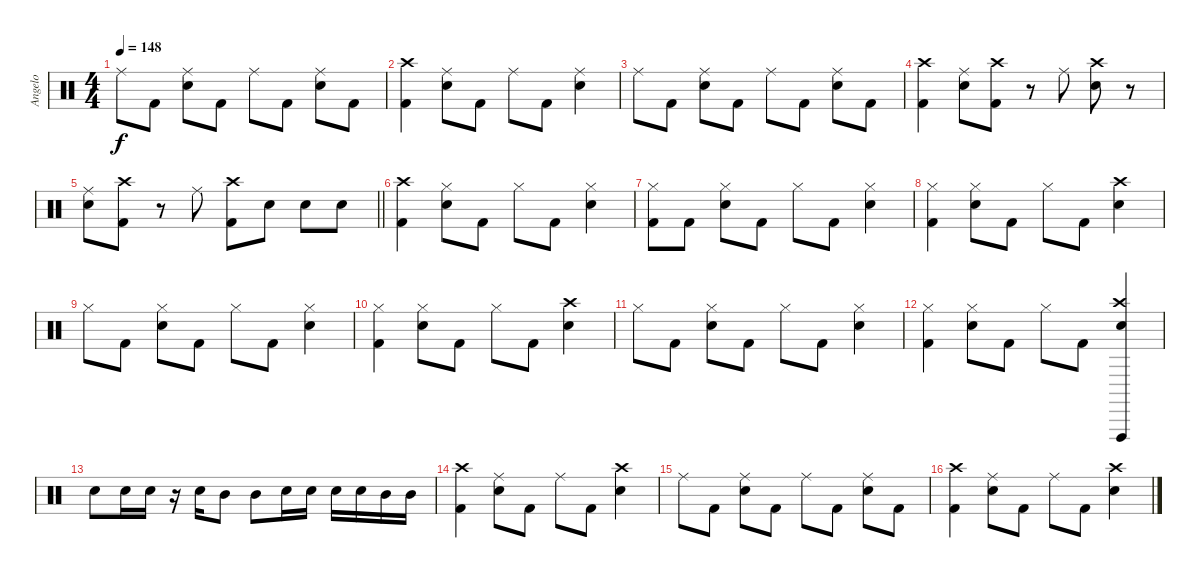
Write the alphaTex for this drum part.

\track ("Angelo" "Angelo") {instrument percussion}
\staff {score}
\articulation defaults
\ts (4 4)
\tempo 148
\clef neutral
\ks c "Ride (middle)".8{dy f} "Kick (hit) 2".8
("Ride (middle)" "Snare (hit) 2").8 "Kick (hit) 2".8 "Ride (middle)".8 "Kick (hit) 2".8 ("Ride (middle)" "Snare (hit) 2").8 "Kick (hit) 2".8 |
("Crash high (hit)" "Kick (hit) 2").4 ("Ride (middle)" "Snare (hit) 2").8 "Kick (hit) 2".8 "Ride (middle)".8 "Kick (hit) 2".8 ("Ride (middle)" "Snare (hit) 2").4 |
"Ride (middle)".8 "Kick (hit) 2".8 ("Ride (middle)" "Snare (hit) 2").8 "Kick (hit) 2".8 "Ride (middle)".8 "Kick (hit) 2".8 ("Ride (middle)" "Snare (hit) 2").8 "Kick (hit) 2".8 |
("Crash high (hit)" "Kick (hit) 2").4 ("Ride (middle)" "Snare (hit) 2").8 ("Crash high (hit)" "Kick (hit) 2").8 r.8 "Ride (middle)".8 ("Crash high (hit)" "Snare (hit) 2").8 r.8 |
\barLineRight lightlight
("Ride (middle)" "Snare (hit) 2").8 ("Crash high (hit)" "Kick (hit) 2").8 r.8 "Ride (middle)".8 ("Crash high (hit)" "Kick (hit) 2").8 "Snare (hit) 2".8 "Snare (hit) 2".8 "Snare (hit) 2".8 |
("Crash high (hit)" "Kick (hit) 2").4 ("Hi-Hat (closed)" "Snare (hit) 2").8 "Kick (hit) 2".8 "Hi-Hat (closed)".8 "Kick (hit) 2".8 ("Hi-Hat (closed)" "Snare (hit) 2").4 |
("Hi-Hat (closed)" "Kick (hit) 2").8 "Kick (hit) 2".8 ("Hi-Hat (closed)" "Snare (hit) 2").8 "Kick (hit) 2".8 "Hi-Hat (closed)".8 "Kick (hit) 2".8 ("Hi-Hat (closed)" "Snare (hit) 2").4 |
("Hi-Hat (closed)" "Kick (hit) 2").4 ("Hi-Hat (closed)" "Snare (hit) 2").8 "Kick (hit) 2".8 "Hi-Hat (closed)".8 "Kick (hit) 2".8 ("Crash high (hit)" "Snare (hit) 2").4 |
"Hi-Hat (closed)".8 "Kick (hit) 2".8 ("Hi-Hat (closed)" "Snare (hit) 2").8 "Kick (hit) 2".8 "Hi-Hat (closed)".8 "Kick (hit) 2".8 ("Hi-Hat (closed)" "Snare (hit) 2").4 |
("Hi-Hat (closed)" "Kick (hit) 2").4 ("Hi-Hat (closed)" "Snare (hit) 2").8 "Kick (hit) 2".8 "Hi-Hat (closed)".8 "Kick (hit) 2".8 ("Crash high (hit)" "Snare (hit) 2").4 |
"Hi-Hat (closed)".8 "Kick (hit) 2".8 ("Hi-Hat (closed)" "Snare (hit) 2").8 "Kick (hit) 2".8 "Hi-Hat (closed)".8 "Kick (hit) 2".8 ("Hi-Hat (closed)" "Snare (hit) 2").4 |
("Hi-Hat (closed)" "Kick (hit) 2").4 ("Hi-Hat (closed)" "Snare (hit) 2").8 "Kick (hit) 2".8 "Hi-Hat (closed)".8 "Kick (hit) 2".8 ("Crash high (hit)" "Vibraslap (hit)" "Snare (hit) 2").4 |
"Snare (hit) 2".8 "Snare (hit) 2".16 "Snare (hit) 2".16 r.16 "Snare (hit) 2".16 "Mid Tom (hit)".8 "Mid Tom (hit)".8 "Snare (hit) 2".16 "Snare (hit) 2".16 "Snare (hit) 2".16 "Snare (hit) 2".16 "Mid Tom (hit)".16 "Mid Tom (hit)".16 |
("Crash high (hit)" "Kick (hit) 2").4 ("Ride (middle)" "Snare (hit) 2").8 "Kick (hit) 2".8 "Ride (middle)".8 "Kick (hit) 2".8 ("Crash high (hit)" "Snare (hit) 2").4 |
"Ride (middle)".8 "Kick (hit) 2".8 ("Ride (middle)" "Snare (hit) 2").8 "Kick (hit) 2".8 "Ride (middle)".8 "Kick (hit) 2".8 ("Ride (middle)" "Snare (hit) 2").8 "Kick (hit) 2".8 |
("Crash high (hit)" "Kick (hit) 2").4 ("Ride (middle)" "Snare (hit) 2").8 "Kick (hit) 2".8 "Ride (middle)".8 "Kick (hit) 2".8 ("Crash high (hit)" "Snare (hit) 2").4
